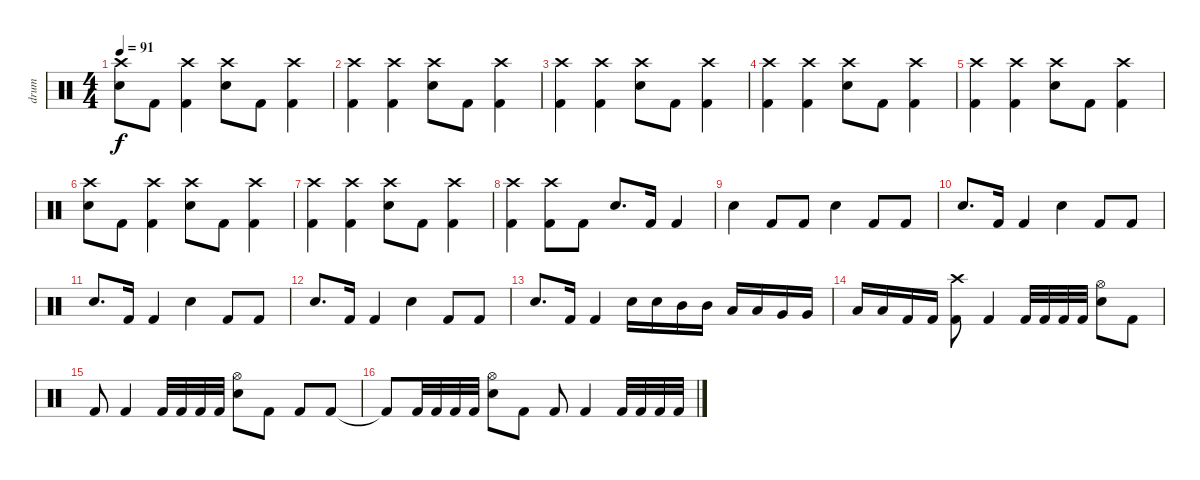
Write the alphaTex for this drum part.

\track ("drum" "drum") {instrument percussion}
\staff {score}
\articulation defaults
\ts (4 4)
\tempo 91
\clef neutral
\ks c
("Crash high (hit)" "Electric Snare (hit)").8{dy f} "Kick (hit) 2".8 ("Crash high (hit)" "Kick (hit) 2").4 ("Crash high (hit)" "Electric Snare (hit)").8 "Kick (hit) 2".8 ("Crash high (hit)" "Kick (hit) 2").4 |
("Crash high (hit)" "Kick (hit) 2").4 ("Crash high (hit)" "Kick (hit) 2").4 ("Crash high (hit)" "Electric Snare (hit)").8 "Kick (hit) 2".8 ("Crash high (hit)" "Kick (hit) 2").4 |
("Crash high (hit)" "Kick (hit) 2").4 ("Crash high (hit)" "Kick (hit) 2").4 ("Crash high (hit)" "Electric Snare (hit)").8 "Kick (hit) 2".8 ("Crash high (hit)" "Kick (hit) 2").4 |
("Crash high (hit)" "Kick (hit) 2").4 ("Crash high (hit)" "Kick (hit) 2").4 ("Crash high (hit)" "Electric Snare (hit)").8 "Kick (hit) 2".8 ("Crash high (hit)" "Kick (hit) 2").4 |
("Crash high (hit)" "Kick (hit) 2").4 ("Crash high (hit)" "Kick (hit) 2").4 ("Crash high (hit)" "Electric Snare (hit)").8 "Kick (hit) 2".8 ("Crash high (hit)" "Kick (hit) 2").4 |
("Crash high (hit)" "Electric Snare (hit)").8 "Kick (hit) 2".8 ("Crash high (hit)" "Kick (hit) 2").4 ("Crash high (hit)" "Electric Snare (hit)").8 "Kick (hit) 2".8 ("Crash high (hit)" "Kick (hit) 2").4 |
("Crash high (hit)" "Kick (hit) 2").4 ("Crash high (hit)" "Kick (hit) 2").4 ("Crash high (hit)" "Electric Snare (hit)").8 "Kick (hit) 2".8 ("Crash high (hit)" "Kick (hit) 2").4 |
("Crash high (hit)" "Kick (hit) 2").4 ("Crash high (hit)" "Kick (hit) 2").8 "Kick (hit) 2".8 "Electric Snare (hit)".8{d} "Kick (hit) 2".16 "Kick (hit) 2".4 |
"Electric Snare (hit)".4 "Kick (hit) 2".8 "Kick (hit) 2".8 "Electric Snare (hit)".4 "Kick (hit) 2".8 "Kick (hit) 2".8 |
"Electric Snare (hit)".8{d} "Kick (hit) 2".16 "Kick (hit) 2".4 "Electric Snare (hit)".4 "Kick (hit) 2".8 "Kick (hit) 2".8 |
"Electric Snare (hit)".8{d} "Kick (hit) 2".16 "Kick (hit) 2".4 "Electric Snare (hit)".4 "Kick (hit) 2".8 "Kick (hit) 2".8 |
"Electric Snare (hit)".8{d} "Kick (hit) 2".16 "Kick (hit) 2".4 "Electric Snare (hit)".4 "Kick (hit) 2".8 "Kick (hit) 2".8 |
"Electric Snare (hit)".8{d} "Kick (hit) 2".16 "Kick (hit) 2".4 "Electric Snare (hit)".16 "Electric Snare (hit)".16 "Mid Tom (hit)".16 "Mid Tom (hit)".16 "Low Tom (hit)".16 "Low Tom (hit)".16 "Very Low Tom (hit)".16 "Very Low Tom (hit)".16 |
"Low Floor Tom (hit)".16 "Low Floor Tom (hit)".16 "Kick (hit) 2".16 "Kick (hit) 2".16 ("Crash high (hit)" "Kick (hit) 2").8 "Kick (hit) 2".4 "Kick (hit) 2".32 "Kick (hit) 2".32 "Kick (hit) 2".32 "Kick (hit) 2".32 ("Hi-Hat (open)" "Electric Snare (hit)").8 "Kick (hit) 2".8 |
"Kick (hit) 2".8 "Kick (hit) 2".4 "Kick (hit) 2".32 "Kick (hit) 2".32 "Kick (hit) 2".32 "Kick (hit) 2".32 ("Hi-Hat (open)" "Electric Snare (hit)").8 "Kick (hit) 2".8 "Kick (hit) 2".8 "Kick (hit) 2".8 |
"Kick (hit) 2"{t}.8 "Kick (hit) 2".32 "Kick (hit) 2".32 "Kick (hit) 2".32 "Kick (hit) 2".32 ("Hi-Hat (open)" "Electric Snare (hit)").8 "Kick (hit) 2".8 "Kick (hit) 2".8 "Kick (hit) 2".4 "Kick (hit) 2".32 "Kick (hit) 2".32 "Kick (hit) 2".32 "Kick (hit) 2".32
